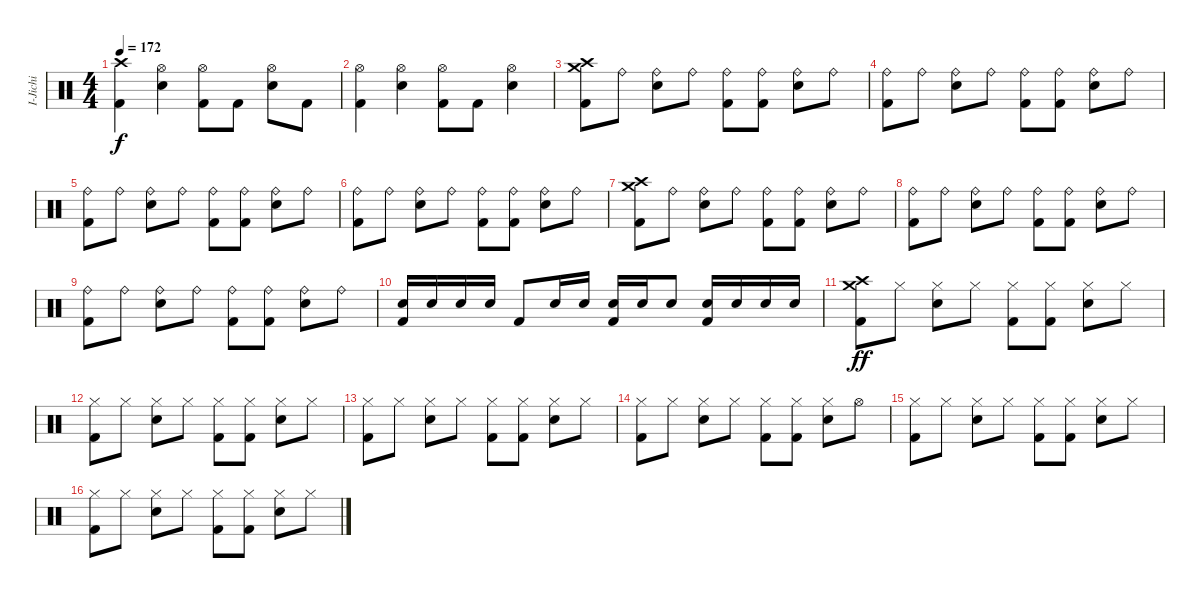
\track ("I-Jichi" "I-Jichi") {instrument percussion}
\staff {score}
\articulation defaults
\ts (4 4)
\tempo 172
\clef neutral
\ks c
("Crash high (hit)" "Kick (hit) 2").4{dy f} ("Hi-Hat (open)" "Electric Snare (hit)").4 ("Hi-Hat (open)" "Kick (hit) 2").8 "Kick (hit) 2".8 ("Hi-Hat (open)" "Electric Snare (hit)").8 "Kick (hit) 2".8 |
("Hi-Hat (open)" "Kick (hit) 2").4 ("Hi-Hat (open)" "Electric Snare (hit)").4 ("Hi-Hat (open)" "Kick (hit) 2").8 "Kick (hit) 2".8 ("Hi-Hat (open)" "Electric Snare (hit)").4 |
("Crash high (hit)" "Crash medium (hit)" "Kick (hit) 2").8 "Ride (bell)".8 ("Ride (bell)" "Electric Snare (hit)").8 "Ride (bell)".8 ("Ride (bell)" "Kick (hit) 2").8 ("Ride (bell)" "Kick (hit) 2").8 ("Ride (bell)" "Electric Snare (hit)").8 "Ride (bell)".8 |
("Ride (bell)" "Kick (hit) 2").8 "Ride (bell)".8 ("Ride (bell)" "Electric Snare (hit)").8 "Ride (bell)".8 ("Ride (bell)" "Kick (hit) 2").8 ("Ride (bell)" "Kick (hit) 2").8 ("Ride (bell)" "Electric Snare (hit)").8 "Ride (bell)".8 |
("Ride (bell)" "Kick (hit) 2").8 "Ride (bell)".8 ("Ride (bell)" "Electric Snare (hit)").8 "Ride (bell)".8 ("Ride (bell)" "Kick (hit) 2").8 ("Ride (bell)" "Kick (hit) 2").8 ("Ride (bell)" "Electric Snare (hit)").8 "Ride (bell)".8 |
("Ride (bell)" "Kick (hit) 2").8 "Ride (bell)".8 ("Ride (bell)" "Electric Snare (hit)").8 "Ride (bell)".8 ("Ride (bell)" "Kick (hit) 2").8 ("Ride (bell)" "Kick (hit) 2").8 ("Ride (bell)" "Electric Snare (hit)").8 "Ride (bell)".8 |
("Crash high (hit)" "Crash medium (hit)" "Kick (hit) 2").8 "Ride (bell)".8 ("Ride (bell)" "Electric Snare (hit)").8 "Ride (bell)".8 ("Ride (bell)" "Kick (hit) 2").8 ("Ride (bell)" "Kick (hit) 2").8 ("Ride (bell)" "Electric Snare (hit)").8 "Ride (bell)".8 |
("Ride (bell)" "Kick (hit) 2").8 "Ride (bell)".8 ("Ride (bell)" "Electric Snare (hit)").8 "Ride (bell)".8 ("Ride (bell)" "Kick (hit) 2").8 ("Ride (bell)" "Kick (hit) 2").8 ("Ride (bell)" "Electric Snare (hit)").8 "Ride (bell)".8 |
("Ride (bell)" "Kick (hit) 2").8 "Ride (bell)".8 ("Ride (bell)" "Electric Snare (hit)").8 "Ride (bell)".8 ("Ride (bell)" "Kick (hit) 2").8 ("Ride (bell)" "Kick (hit) 2").8 ("Ride (bell)" "Electric Snare (hit)").8 "Ride (bell)".8 |
("Electric Snare (hit)" "Kick (hit) 2").16 "Electric Snare (hit)".16 "Electric Snare (hit)".16 "Electric Snare (hit)".16 "Kick (hit) 2".8 "Electric Snare (hit)".16 "Electric Snare (hit)".16 ("Electric Snare (hit)" "Kick (hit) 2").16 "Electric Snare (hit)".16 "Electric Snare (hit)".8 ("Electric Snare (hit)" "Kick (hit) 2").16 "Electric Snare (hit)".16 "Electric Snare (hit)".16 "Electric Snare (hit)".16 |
("Crash high (hit)" "Crash medium (hit)" "Kick (hit) 2").8{dy ff} "Hi-Hat (closed)".8 ("Hi-Hat (closed)" "Electric Snare (hit)").8 "Hi-Hat (closed)".8 ("Hi-Hat (closed)" "Kick (hit) 2").8 ("Hi-Hat (closed)" "Kick (hit) 2").8 ("Hi-Hat (closed)" "Electric Snare (hit)").8 "Hi-Hat (closed)".8 |
("Hi-Hat (closed)" "Kick (hit) 2").8 "Hi-Hat (closed)".8 ("Hi-Hat (closed)" "Electric Snare (hit)").8 "Hi-Hat (closed)".8 ("Hi-Hat (closed)" "Kick (hit) 2").8 ("Hi-Hat (closed)" "Kick (hit) 2").8 ("Hi-Hat (closed)" "Electric Snare (hit)").8 "Hi-Hat (closed)".8 |
("Hi-Hat (closed)" "Kick (hit) 2").8 "Hi-Hat (closed)".8 ("Hi-Hat (closed)" "Electric Snare (hit)").8 "Hi-Hat (closed)".8 ("Hi-Hat (closed)" "Kick (hit) 2").8 ("Hi-Hat (closed)" "Kick (hit) 2").8 ("Hi-Hat (closed)" "Electric Snare (hit)").8 "Hi-Hat (closed)".8 |
("Hi-Hat (closed)" "Kick (hit) 2").8 "Hi-Hat (closed)".8 ("Hi-Hat (closed)" "Electric Snare (hit)").8 "Hi-Hat (closed)".8 ("Hi-Hat (closed)" "Kick (hit) 2").8 ("Hi-Hat (closed)" "Kick (hit) 2").8 ("Hi-Hat (closed)" "Electric Snare (hit)").8 "Hi-Hat (open)".8 |
("Hi-Hat (closed)" "Kick (hit) 2").8 "Hi-Hat (closed)".8 ("Hi-Hat (closed)" "Electric Snare (hit)").8 "Hi-Hat (closed)".8 ("Hi-Hat (closed)" "Kick (hit) 2").8 ("Hi-Hat (closed)" "Kick (hit) 2").8 ("Hi-Hat (closed)" "Electric Snare (hit)").8 "Hi-Hat (closed)".8 |
("Hi-Hat (closed)" "Kick (hit) 2").8 "Hi-Hat (closed)".8 ("Hi-Hat (closed)" "Electric Snare (hit)").8 "Hi-Hat (closed)".8 ("Hi-Hat (closed)" "Kick (hit) 2").8 ("Hi-Hat (closed)" "Kick (hit) 2").8 ("Hi-Hat (closed)" "Electric Snare (hit)").8 "Hi-Hat (closed)".8
